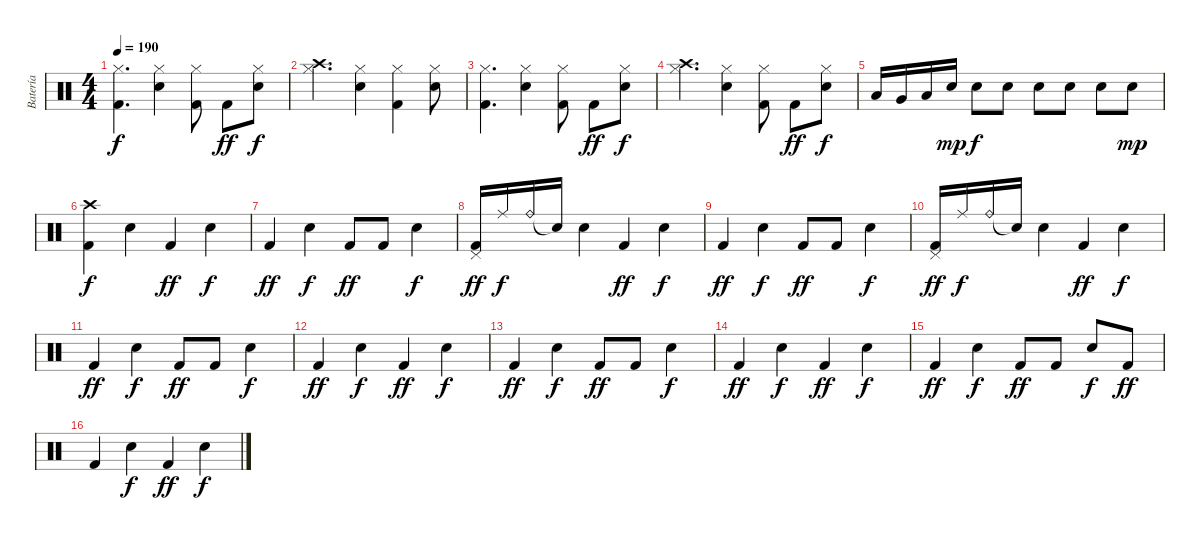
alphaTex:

\track ("Batería" "Batería") {instrument percussion}
\staff {score}
\articulation defaults
\ts (4 4)
\tempo 190
\clef neutral
\ks c
("Kick (hit) 2" "Hi-Hat (closed)").4{d dy f} ("Electric Snare (hit)" "Hi-Hat (closed)").4 ("Kick (hit) 2" "Hi-Hat (closed)").8 "Kick (hit) 2".8{dy ff} ("Electric Snare (hit)" "Hi-Hat (closed)").8{dy f} |
("Crash high (hit)" "Hi-Hat (closed)").4{d} ("Electric Snare (hit)" "Hi-Hat (closed)").4 ("Kick (hit) 2" "Hi-Hat (closed)").4 ("Electric Snare (hit)" "Hi-Hat (closed)").8 |
("Kick (hit) 2" "Hi-Hat (closed)").4{d} ("Electric Snare (hit)" "Hi-Hat (closed)").4 ("Kick (hit) 2" "Hi-Hat (closed)").8 "Kick (hit) 2".8{dy ff} ("Electric Snare (hit)" "Hi-Hat (closed)").8{dy f} |
("Crash high (hit)" "Hi-Hat (closed)").4{d} ("Electric Snare (hit)" "Hi-Hat (closed)").4 ("Kick (hit) 2" "Hi-Hat (closed)").8 "Kick (hit) 2".8{dy ff} ("Electric Snare (hit)" "Hi-Hat (closed)").8{dy f} |
"Low Tom (hit)".16 "Very Low Tom (hit)".16 "Low Floor Tom (hit)".16 "Electric Snare (hit)".16{dy mp} "Electric Snare (hit)".8{dy f} "Electric Snare (hit)".8 "Electric Snare (hit)".8 "Electric Snare (hit)".8 "Electric Snare (hit)".8 "Electric Snare (hit)".8{dy mp} |
("Crash high (hit)" "Kick (hit) 2").4{dy f} "Electric Snare (hit)".4 "Kick (hit) 2".4{dy ff} "Electric Snare (hit)".4{dy f} |
"Kick (hit) 2".4{dy ff} "Electric Snare (hit)".4{dy f} "Kick (hit) 2".8{dy ff} "Kick (hit) 2".8 "Electric Snare (hit)".4{dy f} |
("Kick (hit) 2" "Pedal Hi-Hat (hit)").16{dy ff} "Ride (middle)".16{dy f} "Ride (bell)".16 "Snare (hit)"{t}.16 "Electric Snare (hit)".4 "Kick (hit) 2".4{dy ff} "Electric Snare (hit)".4{dy f} |
"Kick (hit) 2".4{dy ff} "Electric Snare (hit)".4{dy f} "Kick (hit) 2".8{dy ff} "Kick (hit) 2".8 "Electric Snare (hit)".4{dy f} |
("Kick (hit) 2" "Pedal Hi-Hat (hit)").16{dy ff} "Ride (middle)".16{dy f} "Ride (bell)".16 "Snare (hit)"{t}.16 "Electric Snare (hit)".4 "Kick (hit) 2".4{dy ff} "Electric Snare (hit)".4{dy f} |
"Kick (hit) 2".4{dy ff} "Electric Snare (hit)".4{dy f} "Kick (hit) 2".8{dy ff} "Kick (hit) 2".8 "Electric Snare (hit)".4{dy f} |
"Kick (hit) 2".4{dy ff} "Electric Snare (hit)".4{dy f} "Kick (hit) 2".4{dy ff} "Electric Snare (hit)".4{dy f} |
"Kick (hit) 2".4{dy ff} "Electric Snare (hit)".4{dy f} "Kick (hit) 2".8{dy ff} "Kick (hit) 2".8 "Electric Snare (hit)".4{dy f} |
"Kick (hit) 2".4{dy ff} "Electric Snare (hit)".4{dy f} "Kick (hit) 2".4{dy ff} "Electric Snare (hit)".4{dy f} |
"Kick (hit) 2".4{dy ff} "Electric Snare (hit)".4{dy f} "Kick (hit) 2".8{dy ff} "Kick (hit) 2".8 "Electric Snare (hit)".8{dy f} "Kick (hit) 2".8{dy ff} |
"Kick (hit) 2".4 "Electric Snare (hit)".4{dy f} "Kick (hit) 2".4{dy ff} "Electric Snare (hit)".4{dy f}
